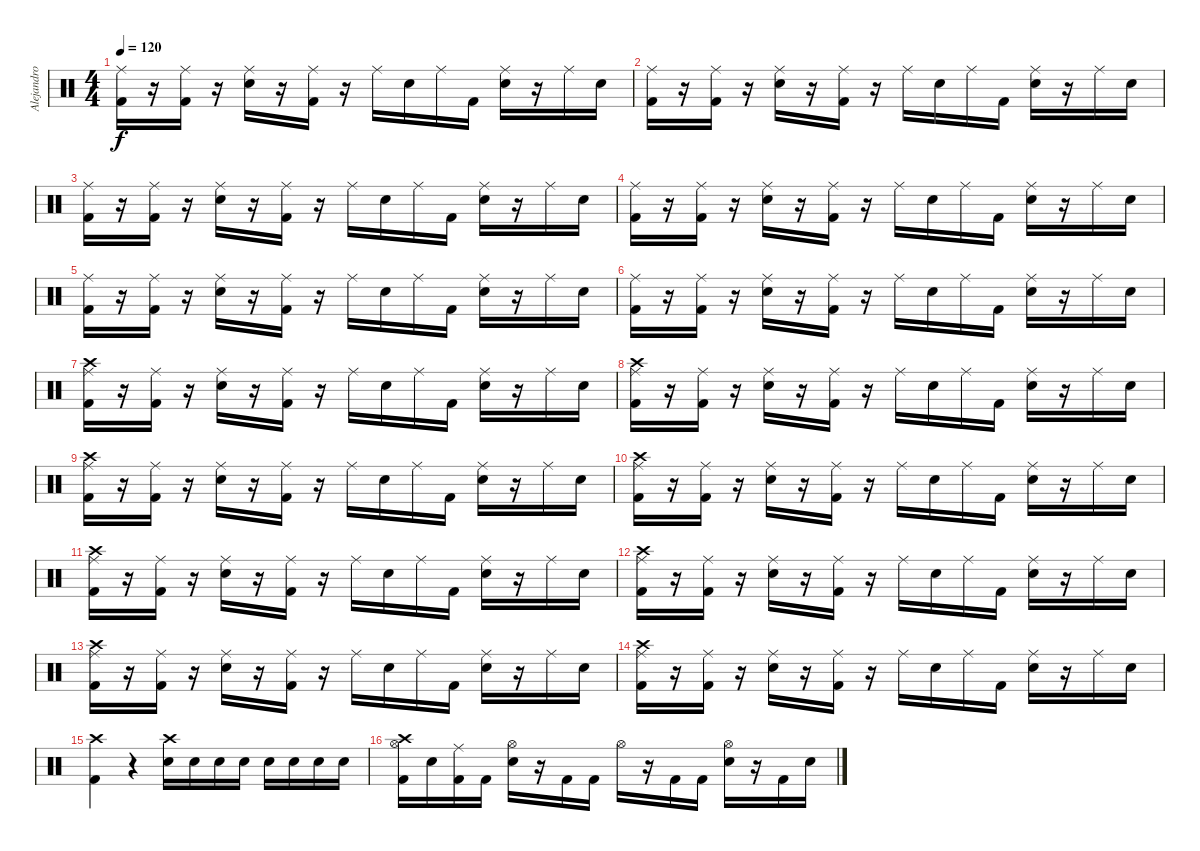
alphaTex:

\track ("Alejandro" "Alejandro") {instrument percussion}
\staff {score}
\articulation defaults
\ts (4 4)
\tempo 120
\clef neutral
\ks c
("Ride (middle)" "Kick (hit) 2").16{dy f} r.16 ("Ride (middle)" "Kick (hit) 2").16 r.16 ("Ride (middle)" "Electric Snare (hit)").16 r.16 ("Ride (middle)" "Kick (hit) 2").16 r.16 "Ride (middle)".16 "Electric Snare (hit)".16 "Ride (middle)".16 "Kick (hit) 2".16 ("Ride (middle)" "Electric Snare (hit)").16 r.16 "Ride (middle)".16 "Snare (hit)".16 |
("Ride (middle)" "Kick (hit) 2").16 r.16 ("Ride (middle)" "Kick (hit) 2").16 r.16 ("Ride (middle)" "Electric Snare (hit)").16 r.16 ("Ride (middle)" "Kick (hit) 2").16 r.16 "Ride (middle)".16 "Electric Snare (hit)".16 "Ride (middle)".16 "Kick (hit) 2".16 ("Ride (middle)" "Electric Snare (hit)").16 r.16 "Ride (middle)".16 "Snare (hit)".16 |
("Ride (middle)" "Kick (hit) 2").16 r.16 ("Ride (middle)" "Kick (hit) 2").16 r.16 ("Ride (middle)" "Electric Snare (hit)").16 r.16 ("Ride (middle)" "Kick (hit) 2").16 r.16 "Ride (middle)".16 "Electric Snare (hit)".16 "Ride (middle)".16 "Kick (hit) 2".16 ("Ride (middle)" "Electric Snare (hit)").16 r.16 "Ride (middle)".16 "Snare (hit)".16 |
("Ride (middle)" "Kick (hit) 2").16 r.16 ("Ride (middle)" "Kick (hit) 2").16 r.16 ("Ride (middle)" "Electric Snare (hit)").16 r.16 ("Ride (middle)" "Kick (hit) 2").16 r.16 "Ride (middle)".16 "Electric Snare (hit)".16 "Ride (middle)".16 "Kick (hit) 2".16 ("Ride (middle)" "Electric Snare (hit)").16 r.16 "Ride (middle)".16 "Snare (hit)".16 |
("Ride (middle)" "Kick (hit) 2").16 r.16 ("Ride (middle)" "Kick (hit) 2").16 r.16 ("Ride (middle)" "Electric Snare (hit)").16 r.16 ("Ride (middle)" "Kick (hit) 2").16 r.16 "Ride (middle)".16 "Electric Snare (hit)".16 "Ride (middle)".16 "Kick (hit) 2".16 ("Ride (middle)" "Electric Snare (hit)").16 r.16 "Ride (middle)".16 "Snare (hit)".16 |
("Ride (middle)" "Kick (hit) 2").16 r.16 ("Ride (middle)" "Kick (hit) 2").16 r.16 ("Ride (middle)" "Electric Snare (hit)").16 r.16 ("Ride (middle)" "Kick (hit) 2").16 r.16 "Ride (middle)".16 "Electric Snare (hit)".16 "Ride (middle)".16 "Kick (hit) 2".16 ("Ride (middle)" "Electric Snare (hit)").16 r.16 "Ride (middle)".16 "Snare (hit)".16 |
("Crash high (hit)" "Ride (middle)" "Kick (hit) 2").16 r.16 ("Ride (middle)" "Kick (hit) 2").16 r.16 ("Ride (middle)" "Electric Snare (hit)").16 r.16 ("Ride (middle)" "Kick (hit) 2").16 r.16 "Ride (middle)".16 "Electric Snare (hit)".16 "Ride (middle)".16 "Kick (hit) 2".16 ("Ride (middle)" "Electric Snare (hit)").16 r.16 "Ride (middle)".16 "Snare (hit)".16 |
("Crash high (hit)" "Ride (middle)" "Kick (hit) 2").16 r.16 ("Ride (middle)" "Kick (hit) 2").16 r.16 ("Ride (middle)" "Electric Snare (hit)").16 r.16 ("Ride (middle)" "Kick (hit) 2").16 r.16 "Ride (middle)".16 "Electric Snare (hit)".16 "Ride (middle)".16 "Kick (hit) 2".16 ("Ride (middle)" "Electric Snare (hit)").16 r.16 "Ride (middle)".16 "Snare (hit)".16 |
("Crash high (hit)" "Ride (middle)" "Kick (hit) 2").16 r.16 ("Ride (middle)" "Kick (hit) 2").16 r.16 ("Ride (middle)" "Electric Snare (hit)").16 r.16 ("Ride (middle)" "Kick (hit) 2").16 r.16 "Ride (middle)".16 "Electric Snare (hit)".16 "Ride (middle)".16 "Kick (hit) 2".16 ("Ride (middle)" "Electric Snare (hit)").16 r.16 "Ride (middle)".16 "Snare (hit)".16 |
("Crash high (hit)" "Ride (middle)" "Kick (hit) 2").16 r.16 ("Ride (middle)" "Kick (hit) 2").16 r.16 ("Ride (middle)" "Electric Snare (hit)").16 r.16 ("Ride (middle)" "Kick (hit) 2").16 r.16 "Ride (middle)".16 "Electric Snare (hit)".16 "Ride (middle)".16 "Kick (hit) 2".16 ("Ride (middle)" "Electric Snare (hit)").16 r.16 "Ride (middle)".16 "Snare (hit)".16 |
("Crash high (hit)" "Ride (middle)" "Kick (hit) 2").16 r.16 ("Ride (middle)" "Kick (hit) 2").16 r.16 ("Ride (middle)" "Electric Snare (hit)").16 r.16 ("Ride (middle)" "Kick (hit) 2").16 r.16 "Ride (middle)".16 "Electric Snare (hit)".16 "Ride (middle)".16 "Kick (hit) 2".16 ("Ride (middle)" "Electric Snare (hit)").16 r.16 "Ride (middle)".16 "Snare (hit)".16 |
("Crash high (hit)" "Ride (middle)" "Kick (hit) 2").16 r.16 ("Ride (middle)" "Kick (hit) 2").16 r.16 ("Ride (middle)" "Electric Snare (hit)").16 r.16 ("Ride (middle)" "Kick (hit) 2").16 r.16 "Ride (middle)".16 "Electric Snare (hit)".16 "Ride (middle)".16 "Kick (hit) 2".16 ("Ride (middle)" "Electric Snare (hit)").16 r.16 "Ride (middle)".16 "Snare (hit)".16 |
("Crash high (hit)" "Ride (middle)" "Kick (hit) 2").16 r.16 ("Ride (middle)" "Kick (hit) 2").16 r.16 ("Ride (middle)" "Electric Snare (hit)").16 r.16 ("Ride (middle)" "Kick (hit) 2").16 r.16 "Ride (middle)".16 "Electric Snare (hit)".16 "Ride (middle)".16 "Kick (hit) 2".16 ("Ride (middle)" "Electric Snare (hit)").16 r.16 "Ride (middle)".16 "Snare (hit)".16 |
("Crash high (hit)" "Ride (middle)" "Kick (hit) 2").16 r.16 ("Ride (middle)" "Kick (hit) 2").16 r.16 ("Ride (middle)" "Electric Snare (hit)").16 r.16 ("Ride (middle)" "Kick (hit) 2").16 r.16 "Ride (middle)".16 "Electric Snare (hit)".16 "Ride (middle)".16 "Kick (hit) 2".16 ("Ride (middle)" "Electric Snare (hit)").16 r.16 "Ride (middle)".16 "Snare (hit)".16 |
("Crash high (hit)" "Kick (hit) 2").4 r.4 ("Crash high (hit)" "Electric Snare (hit)").16 "Electric Snare (hit)".16 "Electric Snare (hit)".16 "Electric Snare (hit)".16 "Electric Snare (hit)".16 "Electric Snare (hit)".16 "Electric Snare (hit)".16 "Electric Snare (hit)".16 |
("Crash high (hit)" "Hi-Hat (open)" "Kick (hit) 2").16 "Electric Snare (hit)".16 ("Ride (middle)" "Kick (hit) 2").16 "Kick (hit) 2".16 ("Hi-Hat (open)" "Electric Snare (hit)").16 r.16 "Kick (hit) 2".16 "Kick (hit) 2".16 "Hi-Hat (open)".16 r.16 "Kick (hit) 2".16 "Kick (hit) 2".16 ("Hi-Hat (open)" "Electric Snare (hit)").16 r.16 "Kick (hit) 2".16 "Electric Snare (hit)".16
